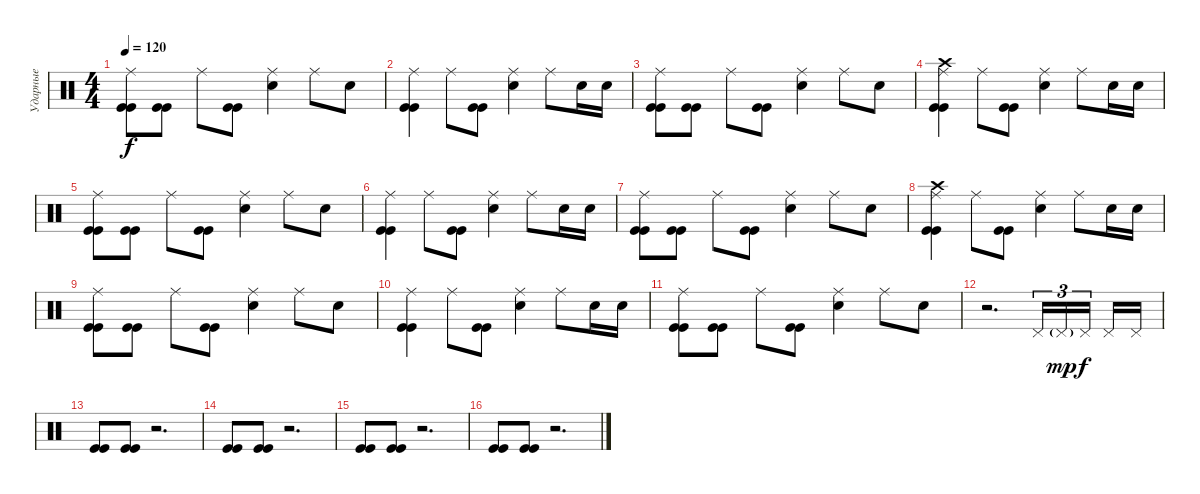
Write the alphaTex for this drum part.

\track ("Ударные" "Ударные") {instrument percussion}
\staff {score}
\articulation defaults
\ts (4 4)
\tempo 120
\clef neutral
\ks c
("Ride (middle)" "Kick (hit)" "Kick (hit)").8{dy f} ("Kick (hit)" "Kick (hit)").8 "Ride (middle)".8 ("Kick (hit)" "Kick (hit)").8 ("Ride (middle)" "Electric Snare (hit)").4 "Ride (middle)".8 "Electric Snare (hit)".8 |
("Ride (middle)" "Kick (hit)" "Kick (hit)").4 "Ride (middle)".8 ("Kick (hit)" "Kick (hit)").8 ("Ride (middle)" "Electric Snare (hit)").4 "Ride (middle)".8 "Electric Snare (hit)".16 "Electric Snare (hit)".16 |
("Ride (middle)" "Kick (hit)" "Kick (hit)").8 ("Kick (hit)" "Kick (hit)").8 "Ride (middle)".8 ("Kick (hit)" "Kick (hit)").8 ("Ride (middle)" "Electric Snare (hit)").4 "Ride (middle)".8 "Electric Snare (hit)".8 |
("Crash high (hit)" "Ride (middle)" "Kick (hit)" "Kick (hit)").4 "Ride (middle)".8 ("Kick (hit)" "Kick (hit)").8 ("Ride (middle)" "Electric Snare (hit)").4 "Ride (middle)".8 "Electric Snare (hit)".16 "Electric Snare (hit)".16 |
("Ride (middle)" "Kick (hit)" "Kick (hit)").8 ("Kick (hit)" "Kick (hit)").8 "Ride (middle)".8 ("Kick (hit)" "Kick (hit)").8 ("Ride (middle)" "Electric Snare (hit)").4 "Ride (middle)".8 "Electric Snare (hit)".8 |
("Ride (middle)" "Kick (hit)" "Kick (hit)").4 "Ride (middle)".8 ("Kick (hit)" "Kick (hit)").8 ("Ride (middle)" "Electric Snare (hit)").4 "Ride (middle)".8 "Electric Snare (hit)".16 "Electric Snare (hit)".16 |
("Ride (middle)" "Kick (hit)" "Kick (hit)").8 ("Kick (hit)" "Kick (hit)").8 "Ride (middle)".8 ("Kick (hit)" "Kick (hit)").8 ("Ride (middle)" "Electric Snare (hit)").4 "Ride (middle)".8 "Electric Snare (hit)".8 |
("Crash high (hit)" "Ride (middle)" "Kick (hit)" "Kick (hit)").4 "Ride (middle)".8 ("Kick (hit)" "Kick (hit)").8 ("Ride (middle)" "Electric Snare (hit)").4 "Ride (middle)".8 "Electric Snare (hit)".16 "Electric Snare (hit)".16 |
("Ride (middle)" "Kick (hit)" "Kick (hit)").8 ("Kick (hit)" "Kick (hit)").8 "Ride (middle)".8 ("Kick (hit)" "Kick (hit)").8 ("Ride (middle)" "Electric Snare (hit)").4 "Ride (middle)".8 "Electric Snare (hit)".8 |
("Ride (middle)" "Kick (hit)" "Kick (hit)").4 "Ride (middle)".8 ("Kick (hit)" "Kick (hit)").8 ("Ride (middle)" "Electric Snare (hit)").4 "Ride (middle)".8 "Electric Snare (hit)".16 "Electric Snare (hit)".16 |
("Ride (middle)" "Kick (hit)" "Kick (hit)").8 ("Kick (hit)" "Kick (hit)").8 "Ride (middle)".8 ("Kick (hit)" "Kick (hit)").8 ("Ride (middle)" "Electric Snare (hit)").4 "Ride (middle)".8 "Electric Snare (hit)".8 |
r.2{d} "Pedal Hi-Hat (hit)".16{tu (3 2)} "Pedal Hi-Hat (hit)"{g}.16{tu (3 2) dy mp} "Pedal Hi-Hat (hit)".16{tu (3 2) dy f beam splitsecondary} "Pedal Hi-Hat (hit)".16 "Pedal Hi-Hat (hit)".16 |
("Kick (hit)" "Kick (hit)").8 ("Kick (hit)" "Kick (hit)").8 r.2{d} |
("Kick (hit)" "Kick (hit)").8 ("Kick (hit)" "Kick (hit)").8 r.2{d} |
("Kick (hit)" "Kick (hit)").8 ("Kick (hit)" "Kick (hit)").8 r.2{d} |
("Kick (hit)" "Kick (hit)").8 ("Kick (hit)" "Kick (hit)").8 r.2{d}
